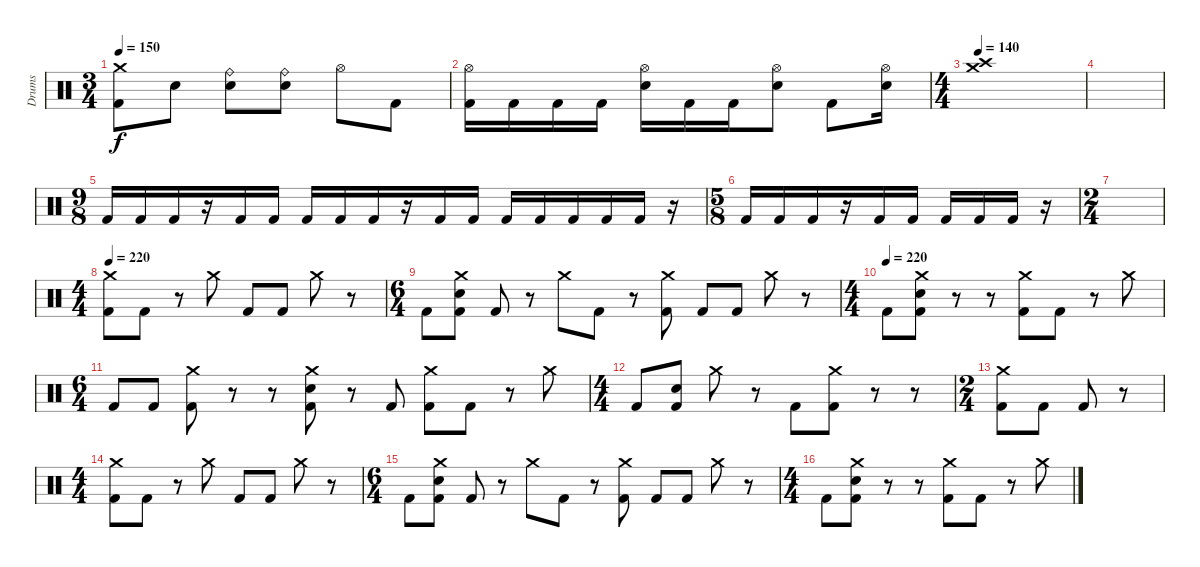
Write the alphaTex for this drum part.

\track ("Drums" "Drums") {instrument percussion}
\staff {score}
\articulation defaults
\ts (3 4)
\tempo 150
\clef neutral
\ks c
("Crash medium (hit)" "Kick (hit) 2").8{dy f} "Electric Snare (hit)".8 ("Ride (bell)" "Snare (hit) 2").8 ("Ride (bell)" "Snare (hit) 2").8 "Hi-Hat (open)".8 "Kick (hit) 2".8 |
("Hi-Hat (open)" "Kick (hit) 2").16 "Kick (hit) 2".16 "Kick (hit) 2".16 "Kick (hit) 2".16 ("Hi-Hat (open)" "Electric Snare (hit)").16 "Kick (hit) 2".16 "Kick (hit) 2".16 ("Hi-Hat (open)" "Electric Snare (hit)").8 "Kick (hit) 2".8 ("Hi-Hat (open)" "Electric Snare (hit)").16 |
\ts (4 4)
\tempo 140
("Crash medium (hit)" "Crash high (hit)").1 |
|
\ts (9 8)
"Kick (hit) 2".16 "Kick (hit) 2".16 "Kick (hit) 2".16 r.16 "Kick (hit) 2".16 "Kick (hit) 2".16 "Kick (hit) 2".16 "Kick (hit) 2".16 "Kick (hit) 2".16 r.16 "Kick (hit) 2".16 "Kick (hit) 2".16 "Kick (hit) 2".16 "Kick (hit) 2".16 "Kick (hit) 2".16 "Kick (hit) 2".16 "Kick (hit) 2".16 r.16 |
\ts (5 8)
"Kick (hit) 2".16 "Kick (hit) 2".16 "Kick (hit) 2".16 r.16 "Kick (hit) 2".16 "Kick (hit) 2".16 "Kick (hit) 2".16 "Kick (hit) 2".16 "Kick (hit) 2".16 r.16 |
\ts (2 4)
|
\ts (4 4)
\tempo 220
("Crash medium (hit)" "Kick (hit) 2").8 "Kick (hit) 2".8 r.8 "Crash medium (hit)".8 "Kick (hit) 2".8 "Kick (hit) 2".8 "Crash medium (hit)".8 r.8 |
\ts (6 4)
"Kick (hit) 2".8 ("Crash medium (hit)" "Electric Snare (hit)" "Kick (hit) 2").8 "Kick (hit) 2".8 r.8 "Crash medium (hit)".8 "Kick (hit) 2".8 r.8 ("Crash medium (hit)" "Kick (hit) 2").8 "Kick (hit) 2".8 "Kick (hit) 2".8 "Crash medium (hit)".8 r.8 |
\ts (4 4)
\tempo (220)
"Kick (hit) 2".8 ("Crash medium (hit)" "Electric Snare (hit)" "Kick (hit) 2").8 r.8 r.8 ("Crash medium (hit)" "Kick (hit) 2").8 "Kick (hit) 2".8 r.8 "Crash medium (hit)".8 |
\ts (6 4)
"Kick (hit) 2".8 "Kick (hit) 2".8 ("Crash medium (hit)" "Kick (hit) 2").8 r.8 r.8 ("Crash medium (hit)" "Electric Snare (hit)" "Kick (hit) 2").8 r.8 "Kick (hit) 2".8 ("Crash medium (hit)" "Kick (hit) 2").8 "Kick (hit) 2".8 r.8 "Crash medium (hit)".8 |
\ts (4 4)
"Kick (hit) 2".8 ("Electric Snare (hit)" "Kick (hit) 2").8 "Crash medium (hit)".8 r.8 "Kick (hit) 2".8 ("Crash medium (hit)" "Kick (hit) 2").8 r.8 r.8 |
\ts (2 4)
("Crash medium (hit)" "Kick (hit) 2").8 "Kick (hit) 2".8 "Kick (hit) 2".8 r.8 |
\ts (4 4)
("Crash medium (hit)" "Kick (hit) 2").8 "Kick (hit) 2".8 r.8 "Crash medium (hit)".8 "Kick (hit) 2".8 "Kick (hit) 2".8 "Crash medium (hit)".8 r.8 |
\ts (6 4)
"Kick (hit) 2".8 ("Crash medium (hit)" "Electric Snare (hit)" "Kick (hit) 2").8 "Kick (hit) 2".8 r.8 "Crash medium (hit)".8 "Kick (hit) 2".8 r.8 ("Crash medium (hit)" "Kick (hit) 2").8 "Kick (hit) 2".8 "Kick (hit) 2".8 "Crash medium (hit)".8 r.8 |
\ts (4 4)
"Kick (hit) 2".8 ("Crash medium (hit)" "Electric Snare (hit)" "Kick (hit) 2").8 r.8 r.8 ("Crash medium (hit)" "Kick (hit) 2").8 "Kick (hit) 2".8 r.8 "Crash medium (hit)".8
